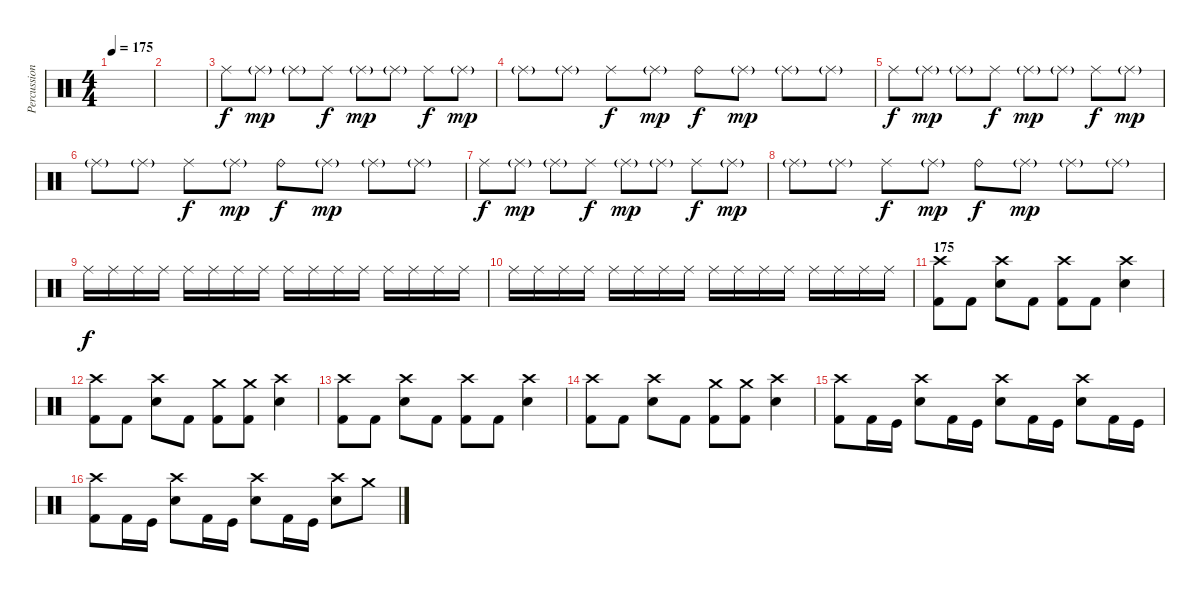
\track ("Percussion" "Percussion") {instrument percussion}
\staff {score}
\articulation defaults
\ts (4 4)
\tempo 175
\clef neutral
\ks c
|
|
"Ride (middle)".8 "Ride (middle)"{g}.8{dy mp} "Ride (middle)"{g}.8 "Ride (middle)".8{dy f} "Ride (middle)"{g}.8{dy mp} "Ride (middle)"{g}.8 "Ride (middle)".8{dy f} "Ride (middle)"{g}.8{dy mp} |
"Ride (middle)"{g}.8 "Ride (middle)"{g}.8 "Ride (middle)".8{dy f} "Ride (middle)"{g}.8{dy mp} "Ride (bell)".8{dy f} "Ride (middle)"{g}.8{dy mp} "Ride (middle)"{g}.8 "Ride (middle)"{g}.8 |
"Ride (middle)".8{dy f} "Ride (middle)"{g}.8{dy mp} "Ride (middle)"{g}.8 "Ride (middle)".8{dy f} "Ride (middle)"{g}.8{dy mp} "Ride (middle)"{g}.8 "Ride (middle)".8{dy f} "Ride (middle)"{g}.8{dy mp} |
"Ride (middle)"{g}.8 "Ride (middle)"{g}.8 "Ride (middle)".8{dy f} "Ride (middle)"{g}.8{dy mp} "Ride (bell)".8{dy f} "Ride (middle)"{g}.8{dy mp} "Ride (middle)"{g}.8 "Ride (middle)"{g}.8 |
"Ride (middle)".8{dy f} "Ride (middle)"{g}.8{dy mp} "Ride (middle)"{g}.8 "Ride (middle)".8{dy f} "Ride (middle)"{g}.8{dy mp} "Ride (middle)"{g}.8 "Ride (middle)".8{dy f} "Ride (middle)"{g}.8{dy mp} |
"Ride (middle)"{g}.8 "Ride (middle)"{g}.8 "Ride (middle)".8{dy f} "Ride (middle)"{g}.8{dy mp} "Ride (bell)".8{dy f} "Ride (middle)"{g}.8{dy mp} "Ride (middle)"{g}.8 "Ride (middle)"{g}.8 |
"Ride (middle)".16{dy f} "Ride (middle)".16 "Ride (middle)".16 "Ride (middle)".16 "Ride (middle)".16 "Ride (middle)".16 "Ride (middle)".16 "Ride (middle)".16 "Ride (middle)".16 "Ride (middle)".16 "Ride (middle)".16 "Ride (middle)".16 "Ride (middle)".16 "Ride (middle)".16 "Ride (middle)".16 "Ride (middle)".16 |
"Ride (middle)".16 "Ride (middle)".16 "Ride (middle)".16 "Ride (middle)".16 "Ride (middle)".16 "Ride (middle)".16 "Ride (middle)".16 "Ride (middle)".16 "Ride (middle)".16 "Ride (middle)".16 "Ride (middle)".16 "Ride (middle)".16 "Ride (middle)".16 "Ride (middle)".16 "Ride (middle)".16 "Ride (middle)".16 |
\section ("" "175")
("Kick (hit) 2" "Crash high (hit)").8 "Kick (hit) 2".8 ("Snare (hit) 2" "Crash high (hit)").8 "Kick (hit) 2".8 ("Kick (hit) 2" "Crash high (hit)").8 "Kick (hit) 2".8 ("Snare (hit) 2" "Crash high (hit)").4 |
("Kick (hit) 2" "Crash high (hit)").8 "Kick (hit) 2".8 ("Snare (hit) 2" "Crash high (hit)").8 "Kick (hit) 2".8 ("Kick (hit) 2" "Crash medium (hit)").8 ("Kick (hit) 2" "Crash medium (hit)").8 ("Snare (hit) 2" "Crash high (hit)").4 |
("Kick (hit) 2" "Crash high (hit)").8 "Kick (hit) 2".8 ("Snare (hit) 2" "Crash high (hit)").8 "Kick (hit) 2".8 ("Kick (hit) 2" "Crash high (hit)").8 "Kick (hit) 2".8 ("Snare (hit) 2" "Crash high (hit)").4 |
("Kick (hit) 2" "Crash high (hit)").8 "Kick (hit) 2".8 ("Snare (hit) 2" "Crash high (hit)").8 "Kick (hit) 2".8 ("Kick (hit) 2" "Crash medium (hit)").8 ("Kick (hit) 2" "Crash medium (hit)").8 ("Snare (hit) 2" "Crash high (hit)").4 |
("Kick (hit) 2" "Crash high (hit)").8 "Kick (hit) 2".16 "Kick (hit)".16 ("Snare (hit) 2" "Crash high (hit)").8 "Kick (hit) 2".16 "Kick (hit)".16 ("Snare (hit) 2" "Crash high (hit)").8 "Kick (hit) 2".16 "Kick (hit)".16 ("Snare (hit) 2" "Crash high (hit)").8 "Kick (hit) 2".16 "Kick (hit)".16 |
("Kick (hit) 2" "Crash high (hit)").8 "Kick (hit) 2".16 "Kick (hit)".16 ("Snare (hit) 2" "Crash high (hit)").8 "Kick (hit) 2".16 "Kick (hit)".16 ("Snare (hit) 2" "Crash high (hit)").8 "Kick (hit) 2".16 "Kick (hit)".16 ("Snare (hit) 2" "Crash high (hit)").8 "Crash medium (hit)".8
